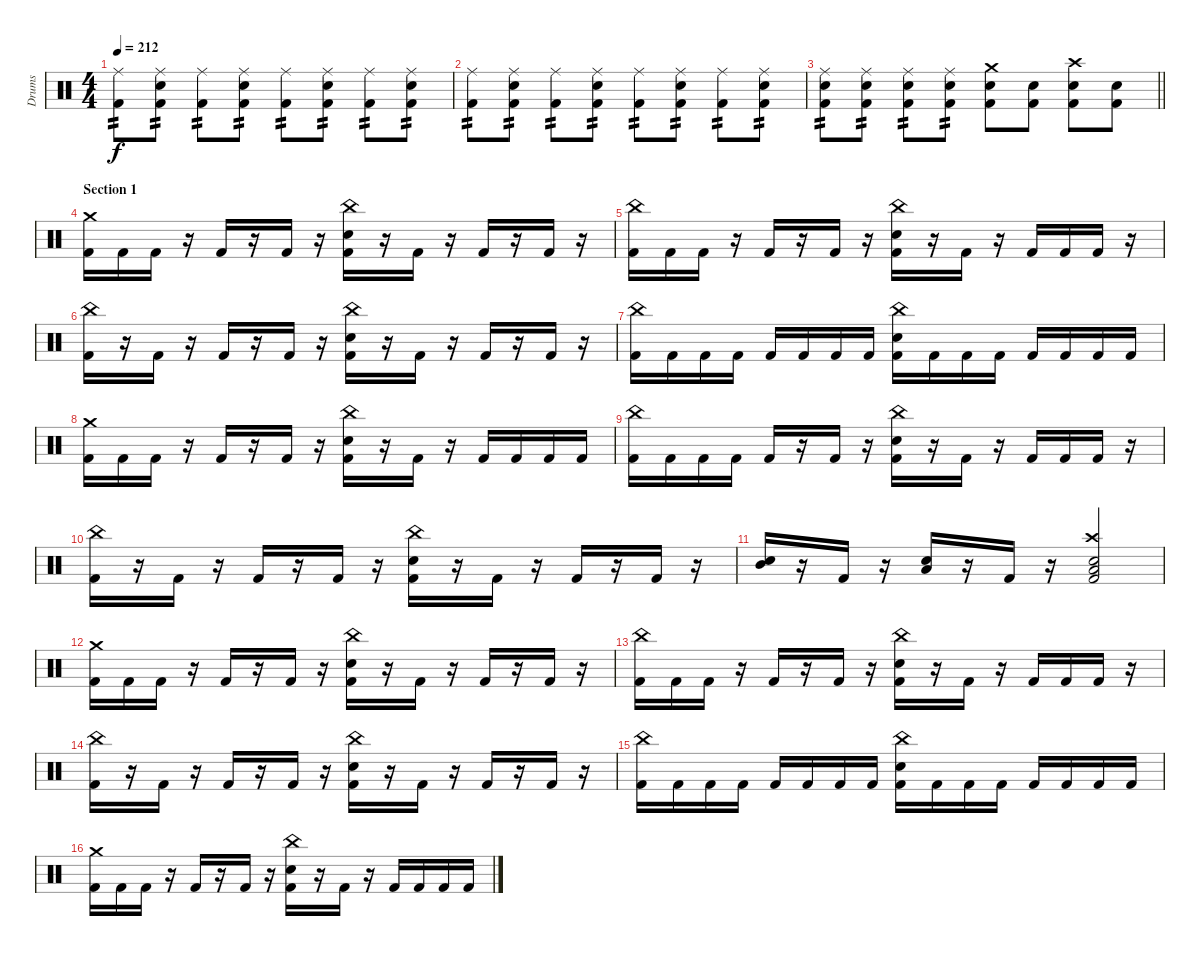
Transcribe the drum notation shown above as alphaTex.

\track ("Drums" "Drums") {instrument percussion}
\staff {score}
\articulation defaults
\ts (4 4)
\tempo 212
\clef neutral
\ks c
("Ride (middle)" "Kick (hit) 2").8{tp 2 dy f} ("Ride (middle)" "Snare (hit) 2" "Kick (hit) 2").8{tp 2} ("Ride (middle)" "Kick (hit) 2").8{tp 2} ("Ride (middle)" "Snare (hit) 2" "Kick (hit) 2").8{tp 2} ("Ride (middle)" "Kick (hit) 2").8{tp 2} ("Ride (middle)" "Snare (hit) 2" "Kick (hit) 2").8{tp 2} ("Ride (middle)" "Kick (hit) 2").8{tp 2} ("Ride (middle)" "Snare (hit) 2" "Kick (hit) 2").8{tp 2} |
("Ride (middle)" "Kick (hit) 2").8{tp 2} ("Ride (middle)" "Snare (hit) 2" "Kick (hit) 2").8{tp 2} ("Ride (middle)" "Kick (hit) 2").8{tp 2} ("Ride (middle)" "Snare (hit) 2" "Kick (hit) 2").8{tp 2} ("Ride (middle)" "Kick (hit) 2").8{tp 2} ("Ride (middle)" "Snare (hit) 2" "Kick (hit) 2").8{tp 2} ("Ride (middle)" "Kick (hit) 2").8{tp 2} ("Ride (middle)" "Snare (hit) 2" "Kick (hit) 2").8{tp 2} |
\barLineRight lightlight
("Ride (middle)" "Snare (hit) 2" "Kick (hit) 2").8{tp 2} ("Ride (middle)" "Snare (hit) 2" "Kick (hit) 2").8{tp 2} ("Ride (middle)" "Snare (hit) 2" "Kick (hit) 2").8{tp 2} ("Ride (middle)" "Snare (hit) 2" "Kick (hit) 2").8{tp 2} ("Crash medium (hit)" "Snare (hit) 2" "Kick (hit) 2").8 ("Snare (hit) 2" "Kick (hit) 2").8 ("Crash high (hit)" "Snare (hit) 2" "Kick (hit) 2").8 ("Snare (hit) 2" "Kick (hit) 2").8 |
\section ("" "Section 1")
("Crash medium (hit)" "Kick (hit) 2").16 "Kick (hit) 2".16 "Kick (hit) 2".16 r.16 "Kick (hit) 2".16 r.16 "Kick (hit) 2".16 r.16 ("China (hit)" "Snare (hit) 2" "Kick (hit) 2").16 r.16 "Kick (hit) 2".16 r.16 "Kick (hit) 2".16 r.16 "Kick (hit) 2".16 r.16 |
("China (hit)" "Kick (hit) 2").16 "Kick (hit) 2".16 "Kick (hit) 2".16 r.16 "Kick (hit) 2".16 r.16 "Kick (hit) 2".16 r.16 ("China (hit)" "Snare (hit) 2" "Kick (hit) 2").16 r.16 "Kick (hit) 2".16 r.16 "Kick (hit) 2".16 "Kick (hit) 2".16 "Kick (hit) 2".16 r.16 |
("China (hit)" "Kick (hit) 2").16 r.16 "Kick (hit) 2".16 r.16 "Kick (hit) 2".16 r.16 "Kick (hit) 2".16 r.16 ("China (hit)" "Snare (hit) 2" "Kick (hit) 2").16 r.16 "Kick (hit) 2".16 r.16 "Kick (hit) 2".16 r.16 "Kick (hit) 2".16 r.16 |
("China (hit)" "Kick (hit) 2").16 "Kick (hit) 2".16 "Kick (hit) 2".16 "Kick (hit) 2".16 "Kick (hit) 2".16 "Kick (hit) 2".16 "Kick (hit) 2".16 "Kick (hit) 2".16 ("China (hit)" "Snare (hit) 2" "Kick (hit) 2").16 "Kick (hit) 2".16 "Kick (hit) 2".16 "Kick (hit) 2".16 "Kick (hit) 2".16 "Kick (hit) 2".16 "Kick (hit) 2".16 "Kick (hit) 2".16 |
("Crash medium (hit)" "Kick (hit) 2").16 "Kick (hit) 2".16 "Kick (hit) 2".16 r.16 "Kick (hit) 2".16 r.16 "Kick (hit) 2".16 r.16 ("China (hit)" "Snare (hit) 2" "Kick (hit) 2").16 r.16 "Kick (hit) 2".16 r.16 "Kick (hit) 2".16 "Kick (hit) 2".16 "Kick (hit) 2".16 "Kick (hit) 2".16 |
("China (hit)" "Kick (hit) 2").16 "Kick (hit) 2".16 "Kick (hit) 2".16 "Kick (hit) 2".16 "Kick (hit) 2".16 r.16 "Kick (hit) 2".16 r.16 ("China (hit)" "Snare (hit) 2" "Kick (hit) 2").16 r.16 "Kick (hit) 2".16 r.16 "Kick (hit) 2".16 "Kick (hit) 2".16 "Kick (hit) 2".16 r.16 |
("China (hit)" "Kick (hit) 2").16 r.16 "Kick (hit) 2".16 r.16 "Kick (hit) 2".16 r.16 "Kick (hit) 2".16 r.16 ("China (hit)" "Snare (hit) 2" "Kick (hit) 2").16 r.16 "Kick (hit) 2".16 r.16 "Kick (hit) 2".16 r.16 "Kick (hit) 2".16 r.16 |
("Mid Tom (hit)" "Snare (hit) 2").16 r.16 "Kick (hit) 2".16 r.16 ("Low Tom (hit)" "Snare (hit) 2").16 r.16 "Kick (hit) 2".16 r.16 ("Crash high (hit)" "Low Tom (hit)" "Snare (hit) 2" "Kick (hit) 2").2 |
("Crash medium (hit)" "Kick (hit) 2").16 "Kick (hit) 2".16 "Kick (hit) 2".16 r.16 "Kick (hit) 2".16 r.16 "Kick (hit) 2".16 r.16 ("China (hit)" "Snare (hit) 2" "Kick (hit) 2").16 r.16 "Kick (hit) 2".16 r.16 "Kick (hit) 2".16 r.16 "Kick (hit) 2".16 r.16 |
("China (hit)" "Kick (hit) 2").16 "Kick (hit) 2".16 "Kick (hit) 2".16 r.16 "Kick (hit) 2".16 r.16 "Kick (hit) 2".16 r.16 ("China (hit)" "Snare (hit) 2" "Kick (hit) 2").16 r.16 "Kick (hit) 2".16 r.16 "Kick (hit) 2".16 "Kick (hit) 2".16 "Kick (hit) 2".16 r.16 |
("China (hit)" "Kick (hit) 2").16 r.16 "Kick (hit) 2".16 r.16 "Kick (hit) 2".16 r.16 "Kick (hit) 2".16 r.16 ("China (hit)" "Snare (hit) 2" "Kick (hit) 2").16 r.16 "Kick (hit) 2".16 r.16 "Kick (hit) 2".16 r.16 "Kick (hit) 2".16 r.16 |
("China (hit)" "Kick (hit) 2").16 "Kick (hit) 2".16 "Kick (hit) 2".16 "Kick (hit) 2".16 "Kick (hit) 2".16 "Kick (hit) 2".16 "Kick (hit) 2".16 "Kick (hit) 2".16 ("China (hit)" "Snare (hit) 2" "Kick (hit) 2").16 "Kick (hit) 2".16 "Kick (hit) 2".16 "Kick (hit) 2".16 "Kick (hit) 2".16 "Kick (hit) 2".16 "Kick (hit) 2".16 "Kick (hit) 2".16 |
("Crash medium (hit)" "Kick (hit) 2").16 "Kick (hit) 2".16 "Kick (hit) 2".16 r.16 "Kick (hit) 2".16 r.16 "Kick (hit) 2".16 r.16 ("China (hit)" "Snare (hit) 2" "Kick (hit) 2").16 r.16 "Kick (hit) 2".16 r.16 "Kick (hit) 2".16 "Kick (hit) 2".16 "Kick (hit) 2".16 "Kick (hit) 2".16
